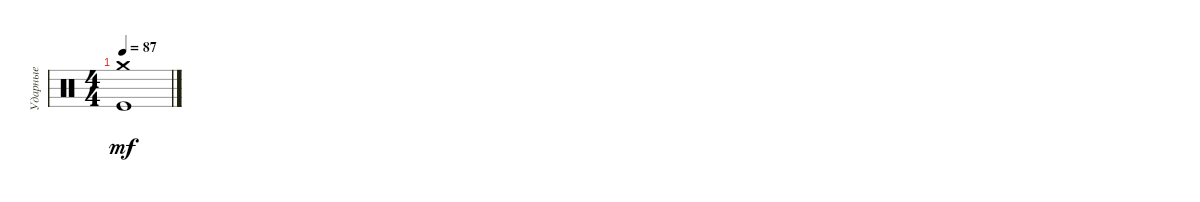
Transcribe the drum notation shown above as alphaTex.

\track ("Ударные" "Ударные") {instrument percussion}
\staff {score}
\articulation defaults
\ts (4 4)
\tempo 87
\clef neutral
\ks c
("Crash medium (hit)" "Kick (hit)").1{dy mf}
